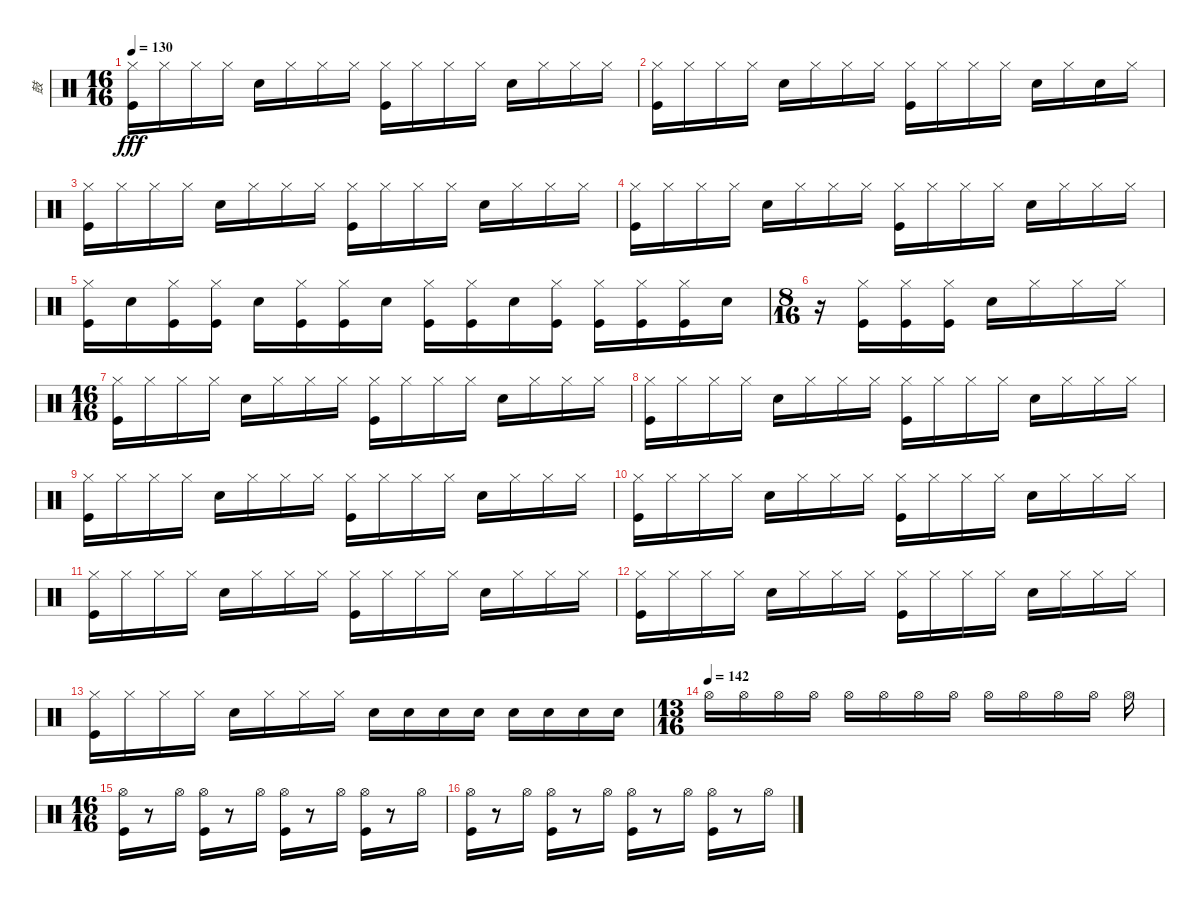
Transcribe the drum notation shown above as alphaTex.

\track ("鼓" "鼓") {instrument percussion}
\staff {score}
\articulation defaults
\ts (16 16)
\tempo 130
\clef neutral
\ks c
("Hi-Hat (closed)" "Kick (hit)").16{dy fff} "Hi-Hat (closed)".16 "Hi-Hat (closed)".16 "Hi-Hat (closed)".16 "Snare (hit) 2".16 "Hi-Hat (closed)".16 "Hi-Hat (closed)".16 "Hi-Hat (closed)".16 ("Hi-Hat (closed)" "Kick (hit)").16 "Hi-Hat (closed)".16 "Hi-Hat (closed)".16 "Hi-Hat (closed)".16 "Snare (hit) 2".16 "Hi-Hat (closed)".16 "Hi-Hat (closed)".16 "Hi-Hat (closed)".16 |
("Hi-Hat (closed)" "Kick (hit)").16 "Hi-Hat (closed)".16 "Hi-Hat (closed)".16 "Hi-Hat (closed)".16 "Snare (hit) 2".16 "Hi-Hat (closed)".16 "Hi-Hat (closed)".16 "Hi-Hat (closed)".16 ("Hi-Hat (closed)" "Kick (hit)").16 "Hi-Hat (closed)".16 "Hi-Hat (closed)".16 "Hi-Hat (closed)".16 "Snare (hit) 2".16 "Hi-Hat (closed)".16 "Snare (hit) 2".16 "Hi-Hat (closed)".16 |
("Hi-Hat (closed)" "Kick (hit)").16 "Hi-Hat (closed)".16 "Hi-Hat (closed)".16 "Hi-Hat (closed)".16 "Snare (hit) 2".16 "Hi-Hat (closed)".16 "Hi-Hat (closed)".16 "Hi-Hat (closed)".16 ("Hi-Hat (closed)" "Kick (hit)").16 "Hi-Hat (closed)".16 "Hi-Hat (closed)".16 "Hi-Hat (closed)".16 "Snare (hit) 2".16 "Hi-Hat (closed)".16 "Hi-Hat (closed)".16 "Hi-Hat (closed)".16 |
("Hi-Hat (closed)" "Kick (hit)").16 "Hi-Hat (closed)".16 "Hi-Hat (closed)".16 "Hi-Hat (closed)".16 "Snare (hit) 2".16 "Hi-Hat (closed)".16 "Hi-Hat (closed)".16 "Hi-Hat (closed)".16 ("Hi-Hat (closed)" "Kick (hit)").16 "Hi-Hat (closed)".16 "Hi-Hat (closed)".16 "Hi-Hat (closed)".16 "Snare (hit) 2".16 "Hi-Hat (closed)".16 "Hi-Hat (closed)".16 "Hi-Hat (closed)".16 |
("Kick (hit)" "Hi-Hat (closed)").16 "Snare (hit) 2".16 ("Kick (hit)" "Hi-Hat (closed)").16 ("Kick (hit)" "Hi-Hat (closed)").16 "Snare (hit) 2".16 ("Kick (hit)" "Hi-Hat (closed)").16 ("Kick (hit)" "Hi-Hat (closed)").16 "Snare (hit) 2".16 ("Kick (hit)" "Hi-Hat (closed)").16 ("Kick (hit)" "Hi-Hat (closed)").16 "Snare (hit) 2".16 ("Kick (hit)" "Hi-Hat (closed)").16 ("Kick (hit)" "Hi-Hat (closed)").16 ("Kick (hit)" "Hi-Hat (closed)").16 ("Kick (hit)" "Hi-Hat (closed)").16 "Snare (hit) 2".16 |
\ts (8 16)
r.16 ("Kick (hit)" "Hi-Hat (closed)").16 ("Kick (hit)" "Hi-Hat (closed)").16 ("Kick (hit)" "Hi-Hat (closed)").16 "Snare (hit) 2".16 "Hi-Hat (closed)".16 "Hi-Hat (closed)".16 "Hi-Hat (closed)".16 |
\ts (16 16)
("Hi-Hat (closed)" "Kick (hit)").16 "Hi-Hat (closed)".16 "Hi-Hat (closed)".16 "Hi-Hat (closed)".16 "Snare (hit) 2".16 "Hi-Hat (closed)".16 "Hi-Hat (closed)".16 "Hi-Hat (closed)".16 ("Hi-Hat (closed)" "Kick (hit)").16 "Hi-Hat (closed)".16 "Hi-Hat (closed)".16 "Hi-Hat (closed)".16 "Snare (hit) 2".16 "Hi-Hat (closed)".16 "Hi-Hat (closed)".16 "Hi-Hat (closed)".16 |
("Hi-Hat (closed)" "Kick (hit)").16 "Hi-Hat (closed)".16 "Hi-Hat (closed)".16 "Hi-Hat (closed)".16 "Snare (hit) 2".16 "Hi-Hat (closed)".16 "Hi-Hat (closed)".16 "Hi-Hat (closed)".16 ("Hi-Hat (closed)" "Kick (hit)").16 "Hi-Hat (closed)".16 "Hi-Hat (closed)".16 "Hi-Hat (closed)".16 "Snare (hit) 2".16 "Hi-Hat (closed)".16 "Hi-Hat (closed)".16 "Hi-Hat (closed)".16 |
("Hi-Hat (closed)" "Kick (hit)").16 "Hi-Hat (closed)".16 "Hi-Hat (closed)".16 "Hi-Hat (closed)".16 "Snare (hit) 2".16 "Hi-Hat (closed)".16 "Hi-Hat (closed)".16 "Hi-Hat (closed)".16 ("Hi-Hat (closed)" "Kick (hit)").16 "Hi-Hat (closed)".16 "Hi-Hat (closed)".16 "Hi-Hat (closed)".16 "Snare (hit) 2".16 "Hi-Hat (closed)".16 "Hi-Hat (closed)".16 "Hi-Hat (closed)".16 |
("Hi-Hat (closed)" "Kick (hit)").16 "Hi-Hat (closed)".16 "Hi-Hat (closed)".16 "Hi-Hat (closed)".16 "Snare (hit) 2".16 "Hi-Hat (closed)".16 "Hi-Hat (closed)".16 "Hi-Hat (closed)".16 ("Hi-Hat (closed)" "Kick (hit)").16 "Hi-Hat (closed)".16 "Hi-Hat (closed)".16 "Hi-Hat (closed)".16 "Snare (hit) 2".16 "Hi-Hat (closed)".16 "Hi-Hat (closed)".16 "Hi-Hat (closed)".16 |
("Hi-Hat (closed)" "Kick (hit)").16 "Hi-Hat (closed)".16 "Hi-Hat (closed)".16 "Hi-Hat (closed)".16 "Snare (hit) 2".16 "Hi-Hat (closed)".16 "Hi-Hat (closed)".16 "Hi-Hat (closed)".16 ("Hi-Hat (closed)" "Kick (hit)").16 "Hi-Hat (closed)".16 "Hi-Hat (closed)".16 "Hi-Hat (closed)".16 "Snare (hit) 2".16 "Hi-Hat (closed)".16 "Hi-Hat (closed)".16 "Hi-Hat (closed)".16 |
("Hi-Hat (closed)" "Kick (hit)").16 "Hi-Hat (closed)".16 "Hi-Hat (closed)".16 "Hi-Hat (closed)".16 "Snare (hit) 2".16 "Hi-Hat (closed)".16 "Hi-Hat (closed)".16 "Hi-Hat (closed)".16 ("Hi-Hat (closed)" "Kick (hit)").16 "Hi-Hat (closed)".16 "Hi-Hat (closed)".16 "Hi-Hat (closed)".16 "Snare (hit) 2".16 "Hi-Hat (closed)".16 "Hi-Hat (closed)".16 "Hi-Hat (closed)".16 |
("Kick (hit)" "Hi-Hat (closed)").16 "Hi-Hat (closed)".16 "Hi-Hat (closed)".16 "Hi-Hat (closed)".16 "Snare (hit) 2".16 "Hi-Hat (closed)".16 "Hi-Hat (closed)".16 "Hi-Hat (closed)".16 "Snare (hit) 2".16 "Snare (hit) 2".16 "Snare (hit) 2".16 "Snare (hit) 2".16 "Snare (hit) 2".16 "Snare (hit) 2".16 "Snare (hit) 2".16 "Snare (hit) 2".16 |
\ts (13 16)
\tempo (142)
"Hi-Hat (open)".16 "Hi-Hat (open)".16 "Hi-Hat (open)".16 "Hi-Hat (open)".16 "Hi-Hat (open)".16 "Hi-Hat (open)".16 "Hi-Hat (open)".16 "Hi-Hat (open)".16 "Hi-Hat (open)".16 "Hi-Hat (open)".16 "Hi-Hat (open)".16 "Hi-Hat (open)".16 "Hi-Hat (open)".16 |
\ts (16 16)
("Hi-Hat (open)" "Kick (hit)").16 r.8 "Hi-Hat (open)".16 ("Hi-Hat (open)" "Kick (hit)").16 r.8 "Hi-Hat (open)".16 ("Hi-Hat (open)" "Kick (hit)").16 r.8 "Hi-Hat (open)".16 ("Hi-Hat (open)" "Kick (hit)").16 r.8 "Hi-Hat (open)".16 |
("Hi-Hat (open)" "Kick (hit)").16 r.8 "Hi-Hat (open)".16 ("Hi-Hat (open)" "Kick (hit)").16 r.8 "Hi-Hat (open)".16 ("Hi-Hat (open)" "Kick (hit)").16 r.8 "Hi-Hat (open)".16 ("Hi-Hat (open)" "Kick (hit)").16 r.8 "Hi-Hat (open)".16
